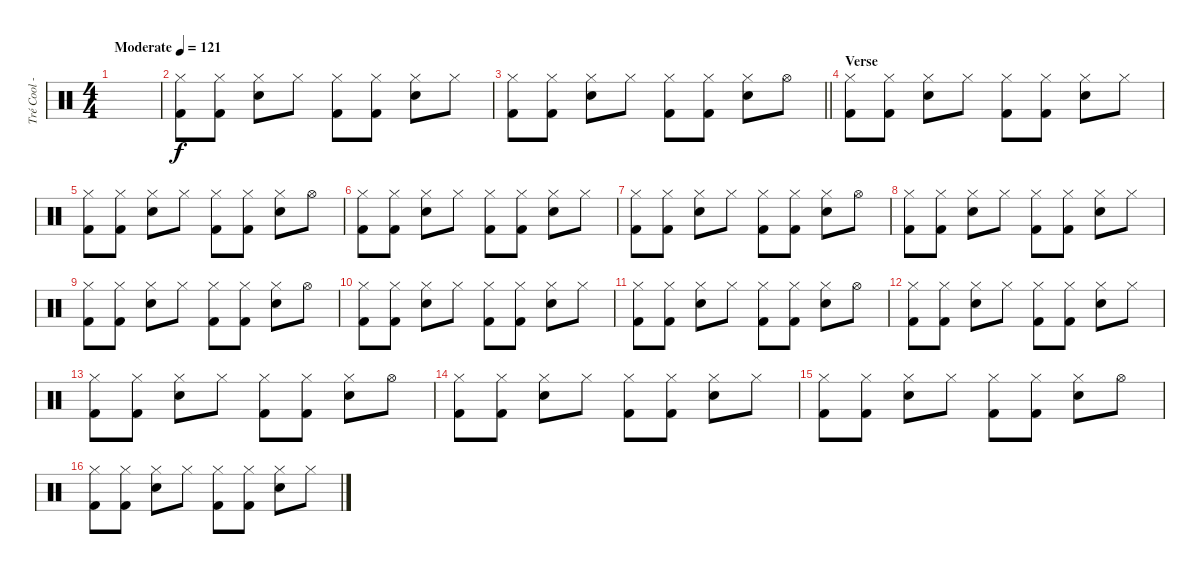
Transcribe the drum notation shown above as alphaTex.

\track ("Tré Cool - Drums" "Tré Cool -") {instrument percussion}
\staff {score}
\articulation defaults
\ts (4 4)
\tempo (121 "Moderate")
\clef neutral
\ks c
|
("Hi-Hat (closed)" "Kick (hit) 2").8{volume 9 balance 2} ("Hi-Hat (closed)" "Kick (hit) 2").8 ("Hi-Hat (closed)" "Electric Snare (hit)").8 "Hi-Hat (closed)".8 ("Hi-Hat (closed)" "Kick (hit) 2").8 ("Hi-Hat (closed)" "Kick (hit) 2").8 ("Hi-Hat (closed)" "Electric Snare (hit)").8 "Hi-Hat (closed)".8 |
\barLineRight lightlight
("Hi-Hat (closed)" "Kick (hit) 2").8 ("Hi-Hat (closed)" "Kick (hit) 2").8 ("Hi-Hat (closed)" "Electric Snare (hit)").8 "Hi-Hat (closed)".8 ("Hi-Hat (closed)" "Kick (hit) 2").8 ("Hi-Hat (closed)" "Kick (hit) 2").8 ("Hi-Hat (closed)" "Electric Snare (hit)").8 "Hi-Hat (open)".8 |
\section ("" "Verse")
("Hi-Hat (closed)" "Kick (hit) 2").8 ("Hi-Hat (closed)" "Kick (hit) 2").8 ("Hi-Hat (closed)" "Electric Snare (hit)").8 "Hi-Hat (closed)".8 ("Hi-Hat (closed)" "Kick (hit) 2").8 ("Hi-Hat (closed)" "Kick (hit) 2").8 ("Hi-Hat (closed)" "Electric Snare (hit)").8 "Hi-Hat (closed)".8 |
("Hi-Hat (closed)" "Kick (hit) 2").8 ("Hi-Hat (closed)" "Kick (hit) 2").8 ("Hi-Hat (closed)" "Electric Snare (hit)").8 "Hi-Hat (closed)".8 ("Hi-Hat (closed)" "Kick (hit) 2").8 ("Hi-Hat (closed)" "Kick (hit) 2").8 ("Hi-Hat (closed)" "Electric Snare (hit)").8 "Hi-Hat (open)".8 |
("Hi-Hat (closed)" "Kick (hit) 2").8 ("Hi-Hat (closed)" "Kick (hit) 2").8 ("Hi-Hat (closed)" "Electric Snare (hit)").8 "Hi-Hat (closed)".8 ("Hi-Hat (closed)" "Kick (hit) 2").8 ("Hi-Hat (closed)" "Kick (hit) 2").8 ("Hi-Hat (closed)" "Electric Snare (hit)").8 "Hi-Hat (closed)".8 |
("Hi-Hat (closed)" "Kick (hit) 2").8 ("Hi-Hat (closed)" "Kick (hit) 2").8 ("Hi-Hat (closed)" "Electric Snare (hit)").8 "Hi-Hat (closed)".8 ("Hi-Hat (closed)" "Kick (hit) 2").8 ("Hi-Hat (closed)" "Kick (hit) 2").8 ("Hi-Hat (closed)" "Electric Snare (hit)").8 "Hi-Hat (open)".8 |
("Hi-Hat (closed)" "Kick (hit) 2").8 ("Hi-Hat (closed)" "Kick (hit) 2").8 ("Hi-Hat (closed)" "Electric Snare (hit)").8 "Hi-Hat (closed)".8 ("Hi-Hat (closed)" "Kick (hit) 2").8 ("Hi-Hat (closed)" "Kick (hit) 2").8 ("Hi-Hat (closed)" "Electric Snare (hit)").8 "Hi-Hat (closed)".8 |
("Hi-Hat (closed)" "Kick (hit) 2").8 ("Hi-Hat (closed)" "Kick (hit) 2").8 ("Hi-Hat (closed)" "Electric Snare (hit)").8 "Hi-Hat (closed)".8 ("Hi-Hat (closed)" "Kick (hit) 2").8 ("Hi-Hat (closed)" "Kick (hit) 2").8 ("Hi-Hat (closed)" "Electric Snare (hit)").8 "Hi-Hat (open)".8 |
("Hi-Hat (closed)" "Kick (hit) 2").8 ("Hi-Hat (closed)" "Kick (hit) 2").8 ("Hi-Hat (closed)" "Electric Snare (hit)").8 "Hi-Hat (closed)".8 ("Hi-Hat (closed)" "Kick (hit) 2").8 ("Hi-Hat (closed)" "Kick (hit) 2").8 ("Hi-Hat (closed)" "Electric Snare (hit)").8 "Hi-Hat (closed)".8 |
("Hi-Hat (closed)" "Kick (hit) 2").8 ("Hi-Hat (closed)" "Kick (hit) 2").8 ("Hi-Hat (closed)" "Electric Snare (hit)").8 "Hi-Hat (closed)".8 ("Hi-Hat (closed)" "Kick (hit) 2").8 ("Hi-Hat (closed)" "Kick (hit) 2").8 ("Hi-Hat (closed)" "Electric Snare (hit)").8 "Hi-Hat (open)".8 |
("Hi-Hat (closed)" "Kick (hit) 2").8 ("Hi-Hat (closed)" "Kick (hit) 2").8 ("Hi-Hat (closed)" "Electric Snare (hit)").8 "Hi-Hat (closed)".8 ("Hi-Hat (closed)" "Kick (hit) 2").8 ("Hi-Hat (closed)" "Kick (hit) 2").8 ("Hi-Hat (closed)" "Electric Snare (hit)").8 "Hi-Hat (closed)".8 |
("Hi-Hat (closed)" "Kick (hit) 2").8 ("Hi-Hat (closed)" "Kick (hit) 2").8 ("Hi-Hat (closed)" "Electric Snare (hit)").8 "Hi-Hat (closed)".8 ("Hi-Hat (closed)" "Kick (hit) 2").8 ("Hi-Hat (closed)" "Kick (hit) 2").8 ("Hi-Hat (closed)" "Electric Snare (hit)").8 "Hi-Hat (open)".8 |
("Hi-Hat (closed)" "Kick (hit) 2").8 ("Hi-Hat (closed)" "Kick (hit) 2").8 ("Hi-Hat (closed)" "Electric Snare (hit)").8 "Hi-Hat (closed)".8 ("Hi-Hat (closed)" "Kick (hit) 2").8 ("Hi-Hat (closed)" "Kick (hit) 2").8 ("Hi-Hat (closed)" "Electric Snare (hit)").8 "Hi-Hat (closed)".8 |
("Hi-Hat (closed)" "Kick (hit) 2").8 ("Hi-Hat (closed)" "Kick (hit) 2").8 ("Hi-Hat (closed)" "Electric Snare (hit)").8 "Hi-Hat (closed)".8 ("Hi-Hat (closed)" "Kick (hit) 2").8 ("Hi-Hat (closed)" "Kick (hit) 2").8 ("Hi-Hat (closed)" "Electric Snare (hit)").8 "Hi-Hat (open)".8 |
("Hi-Hat (closed)" "Kick (hit) 2").8 ("Hi-Hat (closed)" "Kick (hit) 2").8 ("Hi-Hat (closed)" "Electric Snare (hit)").8 "Hi-Hat (closed)".8 ("Hi-Hat (closed)" "Kick (hit) 2").8 ("Hi-Hat (closed)" "Kick (hit) 2").8 ("Hi-Hat (closed)" "Electric Snare (hit)").8 "Hi-Hat (closed)".8
